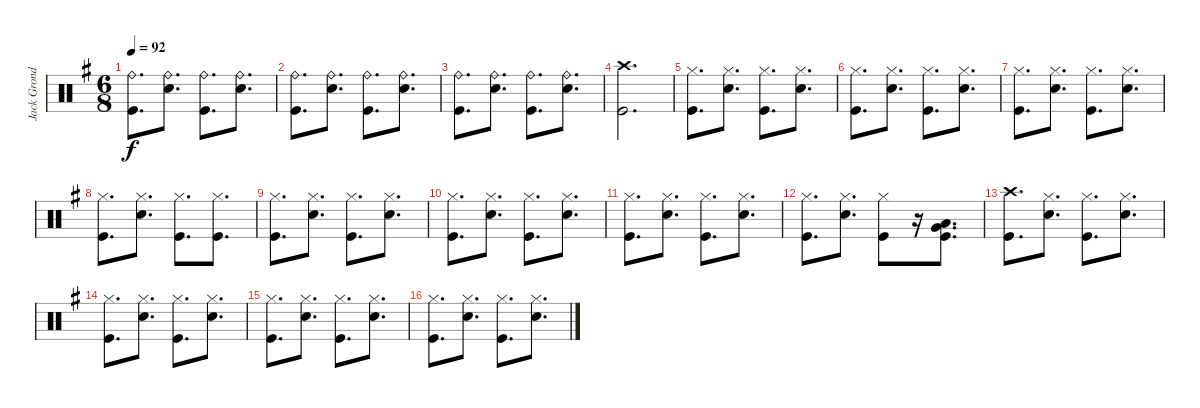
\track ("Jack Grondin Drums" "Jack Grond") {instrument percussion}
\staff {score}
\articulation defaults
\ts (6 8)
\tempo 92
\clef neutral
\ks g
("Ride (bell)" "Kick (hit)").8{d dy f} ("Ride (bell)" "Snare (hit) 2").8{d} ("Ride (bell)" "Kick (hit)").8{d} ("Ride (bell)" "Snare (hit) 2").8{d} |
("Ride (bell)" "Kick (hit)").8{d} ("Ride (bell)" "Snare (hit) 2").8{d} ("Ride (bell)" "Kick (hit)").8{d} ("Ride (bell)" "Snare (hit) 2").8{d} |
("Ride (bell)" "Kick (hit)").8{d} ("Ride (bell)" "Snare (hit) 2").8{d} ("Ride (bell)" "Kick (hit)").8{d} ("Ride (bell)" "Snare (hit) 2").8{d} |
("Crash high (hit)" "Kick (hit)").2{d} |
("Hi-Hat (closed)" "Kick (hit)").8{d} ("Hi-Hat (closed)" "Snare (hit) 2").8{d} ("Hi-Hat (closed)" "Kick (hit)").8{d} ("Hi-Hat (closed)" "Snare (hit) 2").8{d} |
("Hi-Hat (closed)" "Kick (hit)").8{d} ("Hi-Hat (closed)" "Snare (hit) 2").8{d} ("Hi-Hat (closed)" "Kick (hit)").8{d} ("Hi-Hat (closed)" "Snare (hit) 2").8{d} |
("Hi-Hat (closed)" "Kick (hit)").8{d} ("Hi-Hat (closed)" "Snare (hit) 2").8{d} ("Hi-Hat (closed)" "Kick (hit)").8{d} ("Hi-Hat (closed)" "Snare (hit) 2").8{d} |
("Hi-Hat (closed)" "Kick (hit)").8{d} ("Hi-Hat (closed)" "Snare (hit) 2").8{d} ("Hi-Hat (closed)" "Kick (hit)").8{d} ("Hi-Hat (closed)" "Kick (hit)").8{d} |
("Hi-Hat (closed)" "Kick (hit)").8{d} ("Hi-Hat (closed)" "Snare (hit) 2").8{d} ("Hi-Hat (closed)" "Kick (hit)").8{d} ("Hi-Hat (closed)" "Snare (hit) 2").8{d} |
("Hi-Hat (closed)" "Kick (hit)").8{d} ("Hi-Hat (closed)" "Snare (hit) 2").8{d} ("Hi-Hat (closed)" "Kick (hit)").8{d} ("Hi-Hat (closed)" "Snare (hit) 2").8{d} |
("Hi-Hat (closed)" "Kick (hit)").8{d} ("Hi-Hat (closed)" "Snare (hit) 2").8{d} ("Hi-Hat (closed)" "Kick (hit)").8{d} ("Hi-Hat (closed)" "Snare (hit) 2").8{d} |
("Hi-Hat (closed)" "Kick (hit)").8{d} ("Hi-Hat (closed)" "Snare (hit) 2").8{d} ("Hi-Hat (closed)" "Kick (hit)").8 r.16 ("Very Low Tom (hit)" "Low Floor Tom (hit)" "Kick (hit)").8{d} |
("Crash high (hit)" "Kick (hit)").8{d} ("Hi-Hat (closed)" "Snare (hit) 2").8{d} ("Hi-Hat (closed)" "Kick (hit)").8{d} ("Hi-Hat (closed)" "Snare (hit) 2").8{d} |
("Hi-Hat (closed)" "Kick (hit)").8{d} ("Hi-Hat (closed)" "Snare (hit) 2").8{d} ("Hi-Hat (closed)" "Kick (hit)").8{d} ("Hi-Hat (closed)" "Snare (hit) 2").8{d} |
("Hi-Hat (closed)" "Kick (hit)").8{d} ("Hi-Hat (closed)" "Snare (hit) 2").8{d} ("Hi-Hat (closed)" "Kick (hit)").8{d} ("Hi-Hat (closed)" "Snare (hit) 2").8{d} |
("Hi-Hat (closed)" "Kick (hit)").8{d} ("Hi-Hat (closed)" "Snare (hit) 2").8{d} ("Hi-Hat (closed)" "Kick (hit)").8{d} ("Hi-Hat (closed)" "Snare (hit) 2").8{d}
